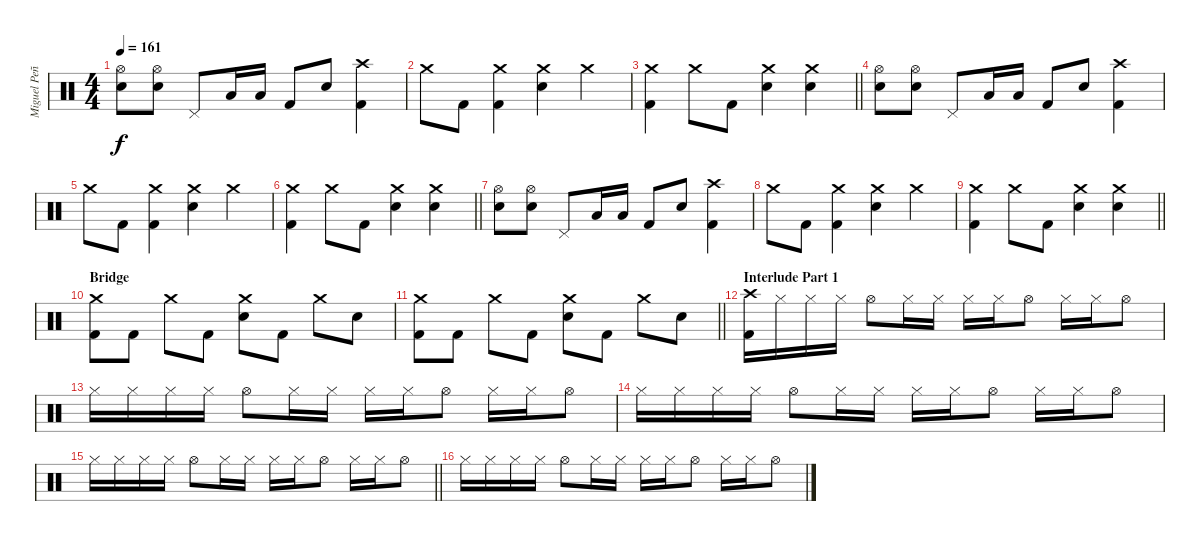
\track ("Miguel Peñas" "Miguel Peñ") {instrument percussion}
\staff {score}
\articulation defaults
\ts (4 4)
\tempo 161
\clef neutral
\ks c
("Hi-Hat (open)" "Electric Snare (hit)").8{dy f} ("Hi-Hat (open)" "Electric Snare (hit)").8 "Pedal Hi-Hat (hit)".8 "Low Tom (hit)".16 "Low Floor Tom (hit)".16 "Kick (hit) 2".8 "Electric Snare (hit)".8 ("Crash high (hit)" "Kick (hit) 2").4 |
"Crash medium (hit)".8 "Kick (hit) 2".8 ("Crash medium (hit)" "Kick (hit) 2").4 ("Crash medium (hit)" "Electric Snare (hit)").4 "Crash medium (hit)".4 |
\barLineRight lightlight
("Crash medium (hit)" "Kick (hit) 2").4 "Crash medium (hit)".8 "Kick (hit) 2".8 ("Crash medium (hit)" "Electric Snare (hit)").4 ("Crash medium (hit)" "Electric Snare (hit)").4 |
("Hi-Hat (open)" "Electric Snare (hit)").8 ("Hi-Hat (open)" "Electric Snare (hit)").8 "Pedal Hi-Hat (hit)".8 "Low Tom (hit)".16 "Low Floor Tom (hit)".16 "Kick (hit) 2".8 "Electric Snare (hit)".8 ("Crash high (hit)" "Kick (hit) 2").4 |
"Crash medium (hit)".8 "Kick (hit) 2".8 ("Crash medium (hit)" "Kick (hit) 2").4 ("Crash medium (hit)" "Electric Snare (hit)").4 "Crash medium (hit)".4 |
\barLineRight lightlight
("Crash medium (hit)" "Kick (hit) 2").4 "Crash medium (hit)".8 "Kick (hit) 2".8 ("Crash medium (hit)" "Electric Snare (hit)").4 ("Crash medium (hit)" "Electric Snare (hit)").4 |
("Hi-Hat (open)" "Electric Snare (hit)").8 ("Hi-Hat (open)" "Electric Snare (hit)").8 "Pedal Hi-Hat (hit)".8 "Low Tom (hit)".16 "Low Floor Tom (hit)".16 "Kick (hit) 2".8 "Electric Snare (hit)".8 ("Crash high (hit)" "Kick (hit) 2").4 |
"Crash medium (hit)".8 "Kick (hit) 2".8 ("Crash medium (hit)" "Kick (hit) 2").4 ("Crash medium (hit)" "Electric Snare (hit)").4 "Crash medium (hit)".4 |
\barLineRight lightlight
("Crash medium (hit)" "Kick (hit) 2").4 "Crash medium (hit)".8 "Kick (hit) 2".8 ("Crash medium (hit)" "Electric Snare (hit)").4 ("Crash medium (hit)" "Electric Snare (hit)").4 |
\section ("" "Bridge")
("Crash medium (hit)" "Kick (hit) 2").8 "Kick (hit) 2".8 "Crash medium (hit)".8 "Kick (hit) 2".8 ("Crash medium (hit)" "Electric Snare (hit)").8 "Kick (hit) 2".8 "Crash medium (hit)".8 "Electric Snare (hit)".8 |
\barLineRight lightlight
("Crash medium (hit)" "Kick (hit) 2").8 "Kick (hit) 2".8 "Crash medium (hit)".8 "Kick (hit) 2".8 ("Crash medium (hit)" "Electric Snare (hit)").8 "Kick (hit) 2".8 "Crash medium (hit)".8 "Electric Snare (hit)".8 |
\section ("" "Interlude Part 1")
("Crash high (hit)" "Kick (hit) 2").16 "Hi-Hat (closed)".16 "Hi-Hat (closed)".16 "Hi-Hat (closed)".16 "Hi-Hat (open)".8 "Hi-Hat (closed)".16 "Hi-Hat (closed)".16 "Hi-Hat (closed)".16 "Hi-Hat (closed)".16 "Hi-Hat (open)".8 "Hi-Hat (closed)".16 "Hi-Hat (closed)".16 "Hi-Hat (open)".8 |
"Hi-Hat (closed)".16 "Hi-Hat (closed)".16 "Hi-Hat (closed)".16 "Hi-Hat (closed)".16 "Hi-Hat (open)".8 "Hi-Hat (closed)".16 "Hi-Hat (closed)".16 "Hi-Hat (closed)".16 "Hi-Hat (closed)".16 "Hi-Hat (open)".8 "Hi-Hat (closed)".16 "Hi-Hat (closed)".16 "Hi-Hat (open)".8 |
"Hi-Hat (closed)".16 "Hi-Hat (closed)".16 "Hi-Hat (closed)".16 "Hi-Hat (closed)".16 "Hi-Hat (open)".8 "Hi-Hat (closed)".16 "Hi-Hat (closed)".16 "Hi-Hat (closed)".16 "Hi-Hat (closed)".16 "Hi-Hat (open)".8 "Hi-Hat (closed)".16 "Hi-Hat (closed)".16 "Hi-Hat (open)".8 |
\barLineRight lightlight "Hi-Hat (closed)".16 "Hi-Hat (closed)".16 "Hi-Hat (closed)".16 "Hi-Hat (closed)".16 "Hi-Hat (open)".8 "Hi-Hat (closed)".16 "Hi-Hat (closed)".16 "Hi-Hat (closed)".16 "Hi-Hat (closed)".16 "Hi-Hat (open)".8 "Hi-Hat (closed)".16 "Hi-Hat (closed)".16 "Hi-Hat (open)".8
|
"Hi-Hat (closed)".16 "Hi-Hat (closed)".16 "Hi-Hat (closed)".16 "Hi-Hat (closed)".16 "Hi-Hat (open)".8 "Hi-Hat (closed)".16 "Hi-Hat (closed)".16 "Hi-Hat (closed)".16 "Hi-Hat (closed)".16 "Hi-Hat (open)".8 "Hi-Hat (closed)".16 "Hi-Hat (closed)".16 "Hi-Hat (open)".8
